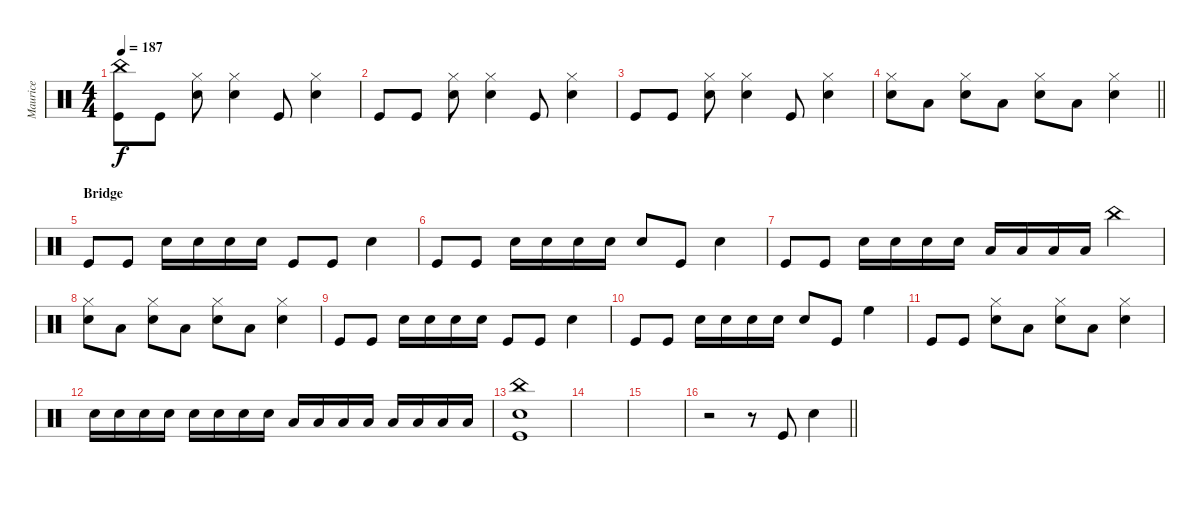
\track ("Maurice" "Maurice") {instrument percussion}
\staff {score}
\articulation defaults
\ts (4 4)
\tempo 187
\clef neutral
\ks c
("China (hit)" "Kick (hit)").8{dy f} "Kick (hit)".8 ("Hi-Hat (closed)" "Snare (hit) 2").8 ("Hi-Hat (closed)" "Snare (hit) 2").4 "Kick (hit)".8 ("Hi-Hat (closed)" "Snare (hit) 2").4 |
"Kick (hit)".8 "Kick (hit)".8 ("Hi-Hat (closed)" "Snare (hit) 2").8 ("Hi-Hat (closed)" "Snare (hit) 2").4 "Kick (hit)".8 ("Hi-Hat (closed)" "Snare (hit) 2").4 |
"Kick (hit)".8 "Kick (hit)".8 ("Hi-Hat (closed)" "Snare (hit) 2").8 ("Hi-Hat (closed)" "Snare (hit) 2").4 "Kick (hit)".8 ("Hi-Hat (closed)" "Snare (hit) 2").4 |
\barLineRight lightlight
("Hi-Hat (closed)" "Snare (hit) 2").8 "Low Tom (hit)".8 ("Hi-Hat (closed)" "Snare (hit) 2").8 "Low Tom (hit)".8 ("Hi-Hat (closed)" "Snare (hit) 2").8 "Low Tom (hit)".8 ("Hi-Hat (closed)" "Snare (hit) 2").4 |
\section ("" "Bridge")
"Kick (hit)".8 "Kick (hit)".8 "Snare (hit) 2".16 "Snare (hit) 2".16 "Snare (hit) 2".16 "Snare (hit) 2".16 "Kick (hit)".8 "Kick (hit)".8 "Snare (hit) 2".4 |
"Kick (hit)".8 "Kick (hit)".8 "Snare (hit) 2".16 "Snare (hit) 2".16 "Snare (hit) 2".16 "Snare (hit) 2".16 "Snare (hit) 2".8 "Kick (hit)".8 "Snare (hit) 2".4 |
"Kick (hit)".8 "Kick (hit)".8 "Snare (hit) 2".16 "Snare (hit) 2".16 "Snare (hit) 2".16 "Snare (hit) 2".16 "Low Tom (hit)".16 "Low Tom (hit)".16 "Low Tom (hit)".16 "Low Tom (hit)".16 "China (hit)".4 |
("Hi-Hat (closed)" "Snare (hit) 2").8 "Low Tom (hit)".8 ("Hi-Hat (closed)" "Snare (hit) 2").8 "Low Tom (hit)".8 ("Hi-Hat (closed)" "Snare (hit) 2").8 "Low Tom (hit)".8 ("Hi-Hat (closed)" "Snare (hit) 2").4 |
"Kick (hit)".8 "Kick (hit)".8 "Snare (hit) 2".16 "Snare (hit) 2".16 "Snare (hit) 2".16 "Snare (hit) 2".16 "Kick (hit)".8 "Kick (hit)".8 "Snare (hit) 2".4 |
"Kick (hit)".8 "Kick (hit)".8 "Snare (hit) 2".16 "Snare (hit) 2".16 "Snare (hit) 2".16 "Snare (hit) 2".16 "Snare (hit) 2".8 "Kick (hit)".8 "High Floor Tom (hit)".4 |
"Kick (hit)".8 "Kick (hit)".8 ("Hi-Hat (closed)" "Snare (hit) 2").8 "Low Tom (hit)".8 ("Hi-Hat (closed)" "Snare (hit) 2").8 "Low Tom (hit)".8 ("Hi-Hat (closed)" "Snare (hit) 2").4 |
"Snare (hit) 2".16 "Snare (hit) 2".16 "Snare (hit) 2".16 "Snare (hit) 2".16 "Snare (hit) 2".16 "Snare (hit) 2".16 "Snare (hit) 2".16 "Snare (hit) 2".16 "Low Tom (hit)".16 "Low Tom (hit)".16 "Low Tom (hit)".16 "Low Tom (hit)".16 "Low Tom (hit)".16 "Low Tom (hit)".16 "Low Tom (hit)".16 "Low Tom (hit)".16 |
("China (hit)" "Snare (hit) 2" "Kick (hit)").1 |
|
|
\barLineRight lightlight
r.2 r.8 "Kick (hit)".8 "Snare (hit) 2".4
